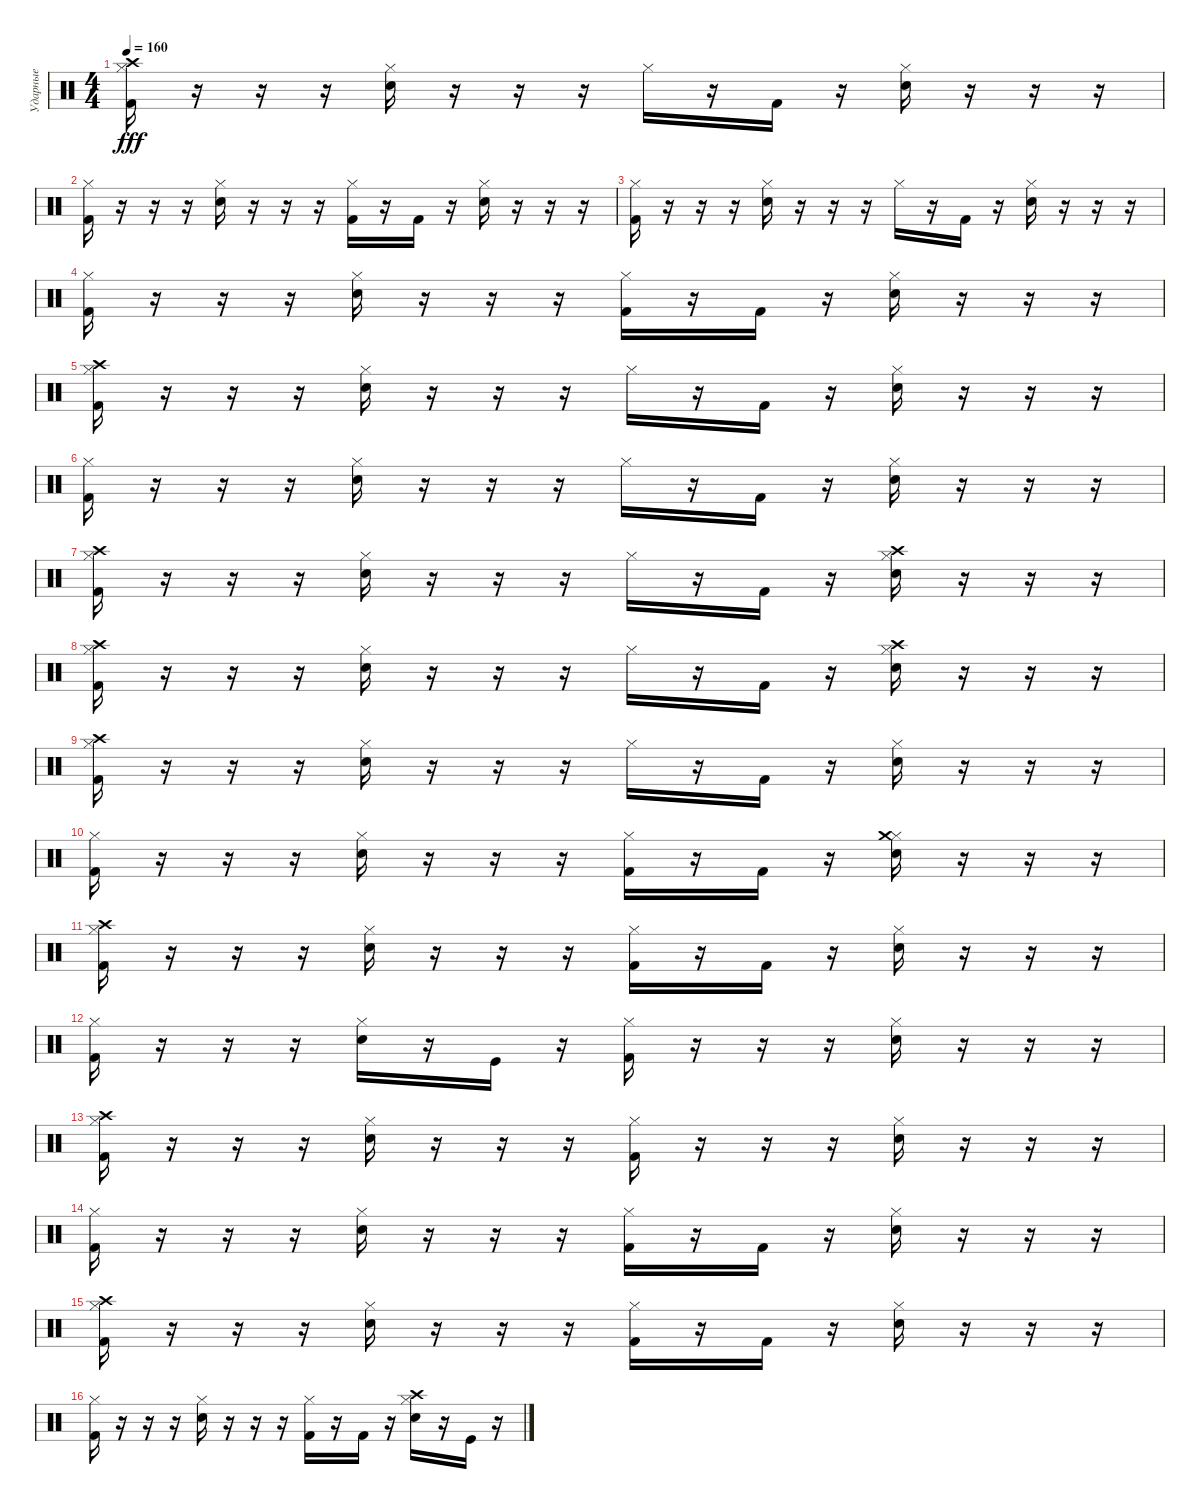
\track ("Ударные" "Ударные") {instrument percussion}
\staff {score}
\articulation defaults
\ts (4 4)
\tempo 160
\clef neutral
\ks c
("Kick (hit) 2" "Hi-Hat (closed)" "Crash high (hit)").16{dy fff} r.16 r.16 r.16 ("Snare (hit) 2" "Hi-Hat (closed)").16 r.16 r.16 r.16 "Hi-Hat (closed)".16 r.16 "Kick (hit) 2".16 r.16 ("Snare (hit) 2" "Hi-Hat (closed)").16 r.16 r.16 r.16 |
("Kick (hit) 2" "Hi-Hat (closed)").16 r.16 r.16 r.16 ("Snare (hit) 2" "Hi-Hat (closed)").16 r.16 r.16 r.16 ("Kick (hit) 2" "Hi-Hat (closed)").16 r.16 "Kick (hit) 2".16 r.16 ("Snare (hit) 2" "Hi-Hat (closed)").16 r.16 r.16 r.16 |
("Kick (hit) 2" "Hi-Hat (closed)").16 r.16 r.16 r.16 ("Snare (hit) 2" "Hi-Hat (closed)").16 r.16 r.16 r.16 "Hi-Hat (closed)".16 r.16 "Kick (hit) 2".16 r.16 ("Snare (hit) 2" "Hi-Hat (closed)").16 r.16 r.16 r.16 |
("Kick (hit) 2" "Hi-Hat (closed)").16 r.16 r.16 r.16 ("Snare (hit) 2" "Hi-Hat (closed)").16 r.16 r.16 r.16 ("Kick (hit) 2" "Hi-Hat (closed)").16 r.16 "Kick (hit) 2".16 r.16 ("Snare (hit) 2" "Hi-Hat (closed)").16 r.16 r.16 r.16 |
("Kick (hit) 2" "Hi-Hat (closed)" "Crash high (hit)").16 r.16 r.16 r.16 ("Snare (hit) 2" "Hi-Hat (closed)").16 r.16 r.16 r.16 "Hi-Hat (closed)".16 r.16 "Kick (hit) 2".16 r.16 ("Snare (hit) 2" "Hi-Hat (closed)").16 r.16 r.16 r.16 |
("Kick (hit) 2" "Hi-Hat (closed)").16 r.16 r.16 r.16 ("Snare (hit) 2" "Hi-Hat (closed)").16 r.16 r.16 r.16 "Hi-Hat (closed)".16 r.16 "Kick (hit) 2".16 r.16 ("Snare (hit) 2" "Hi-Hat (closed)").16 r.16 r.16 r.16 |
("Kick (hit) 2" "Hi-Hat (closed)" "Crash high (hit)").16 r.16 r.16 r.16 ("Snare (hit) 2" "Hi-Hat (closed)").16 r.16 r.16 r.16 "Hi-Hat (closed)".16 r.16 "Kick (hit) 2".16 r.16 ("Snare (hit) 2" "Hi-Hat (closed)" "Crash high (hit)").16 r.16 r.16 r.16 |
("Kick (hit) 2" "Hi-Hat (closed)" "Crash high (hit)").16 r.16 r.16 r.16 ("Snare (hit) 2" "Hi-Hat (closed)").16 r.16 r.16 r.16 "Hi-Hat (closed)".16 r.16 "Kick (hit) 2".16 r.16 ("Snare (hit) 2" "Hi-Hat (closed)" "Crash high (hit)").16 r.16 r.16 r.16 |
("Kick (hit) 2" "Hi-Hat (closed)" "Crash high (hit)").16 r.16 r.16 r.16 ("Snare (hit) 2" "Hi-Hat (closed)").16 r.16 r.16 r.16 "Hi-Hat (closed)".16 r.16 "Kick (hit) 2".16 r.16 ("Snare (hit) 2" "Hi-Hat (closed)").16 r.16 r.16 r.16 |
("Kick (hit) 2" "Hi-Hat (closed)").16 r.16 r.16 r.16 ("Snare (hit) 2" "Hi-Hat (closed)").16 r.16 r.16 r.16 ("Kick (hit) 2" "Hi-Hat (closed)").16 r.16 "Kick (hit) 2".16 r.16 ("Snare (hit) 2" "Hi-Hat (closed)" "Crash medium (hit)").16 r.16 r.16 r.16 |
("Kick (hit) 2" "Hi-Hat (closed)" "Crash high (hit)").16 r.16 r.16 r.16 ("Snare (hit) 2" "Hi-Hat (closed)").16 r.16 r.16 r.16 ("Kick (hit) 2" "Hi-Hat (closed)").16 r.16 "Kick (hit) 2".16 r.16 ("Snare (hit) 2" "Hi-Hat (closed)").16 r.16 r.16 r.16 |
("Kick (hit) 2" "Hi-Hat (closed)").16 r.16 r.16 r.16 ("Snare (hit) 2" "Hi-Hat (closed)").16 r.16 "Kick (hit)".16 r.16 ("Kick (hit) 2" "Hi-Hat (closed)").16 r.16 r.16 r.16 ("Snare (hit) 2" "Hi-Hat (closed)").16 r.16 r.16 r.16 |
("Kick (hit) 2" "Hi-Hat (closed)" "Crash high (hit)").16 r.16 r.16 r.16 ("Snare (hit) 2" "Hi-Hat (closed)").16 r.16 r.16 r.16 ("Kick (hit) 2" "Hi-Hat (closed)").16 r.16 r.16 r.16 ("Snare (hit) 2" "Hi-Hat (closed)").16 r.16 r.16 r.16 |
("Kick (hit) 2" "Hi-Hat (closed)").16 r.16 r.16 r.16 ("Snare (hit) 2" "Hi-Hat (closed)").16 r.16 r.16 r.16 ("Kick (hit) 2" "Hi-Hat (closed)").16 r.16 "Kick (hit) 2".16 r.16 ("Snare (hit) 2" "Hi-Hat (closed)").16 r.16 r.16 r.16 |
("Kick (hit) 2" "Hi-Hat (closed)" "Crash high (hit)").16 r.16 r.16 r.16 ("Snare (hit) 2" "Hi-Hat (closed)").16 r.16 r.16 r.16 ("Kick (hit) 2" "Hi-Hat (closed)").16 r.16 "Kick (hit) 2".16 r.16 ("Snare (hit) 2" "Hi-Hat (closed)").16 r.16 r.16 r.16 |
("Kick (hit) 2" "Hi-Hat (closed)").16 r.16 r.16 r.16 ("Snare (hit) 2" "Hi-Hat (closed)").16 r.16 r.16 r.16 ("Kick (hit) 2" "Hi-Hat (closed)").16 r.16 "Kick (hit) 2".16 r.16 ("Snare (hit) 2" "Hi-Hat (closed)" "Crash high (hit)").16 r.16 "Kick (hit)".16 r.16
